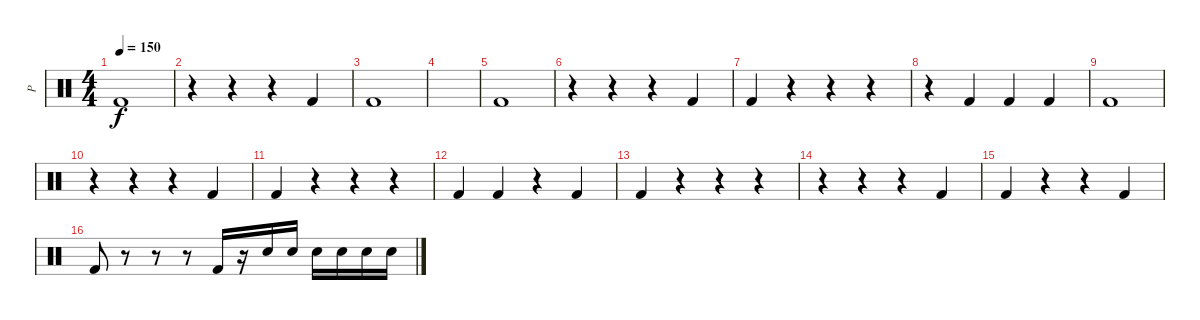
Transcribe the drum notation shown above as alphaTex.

\track ("P" "P") {instrument percussion}
\staff {score}
\articulation defaults
\ts (4 4)
\tempo 150
\clef neutral
\ks c "Kick (hit) 2".1{dy f}
|
r.4 r.4 r.4 "Kick (hit) 2".4 |
"Kick (hit) 2".1 |
|
"Kick (hit) 2".1 |
r.4 r.4 r.4 "Kick (hit) 2".4 |
"Kick (hit) 2".4 r.4 r.4 r.4 |
r.4 "Kick (hit) 2".4 "Kick (hit) 2".4 "Kick (hit) 2".4 |
"Kick (hit) 2".1 |
r.4 r.4 r.4 "Kick (hit) 2".4 |
"Kick (hit) 2".4 r.4 r.4 r.4 |
"Kick (hit) 2".4 "Kick (hit) 2".4 r.4 "Kick (hit) 2".4 |
"Kick (hit) 2".4 r.4 r.4 r.4 |
r.4 r.4 r.4 "Kick (hit) 2".4 |
"Kick (hit) 2".4 r.4 r.4 "Kick (hit) 2".4 |
"Kick (hit) 2".8 r.8 r.8 r.8 "Kick (hit) 2".16 r.16 "Electric Snare (hit)".16 "Electric Snare (hit)".16 "Electric Snare (hit)".16 "Electric Snare (hit)".16 "Electric Snare (hit)".16 "Electric Snare (hit)".16
